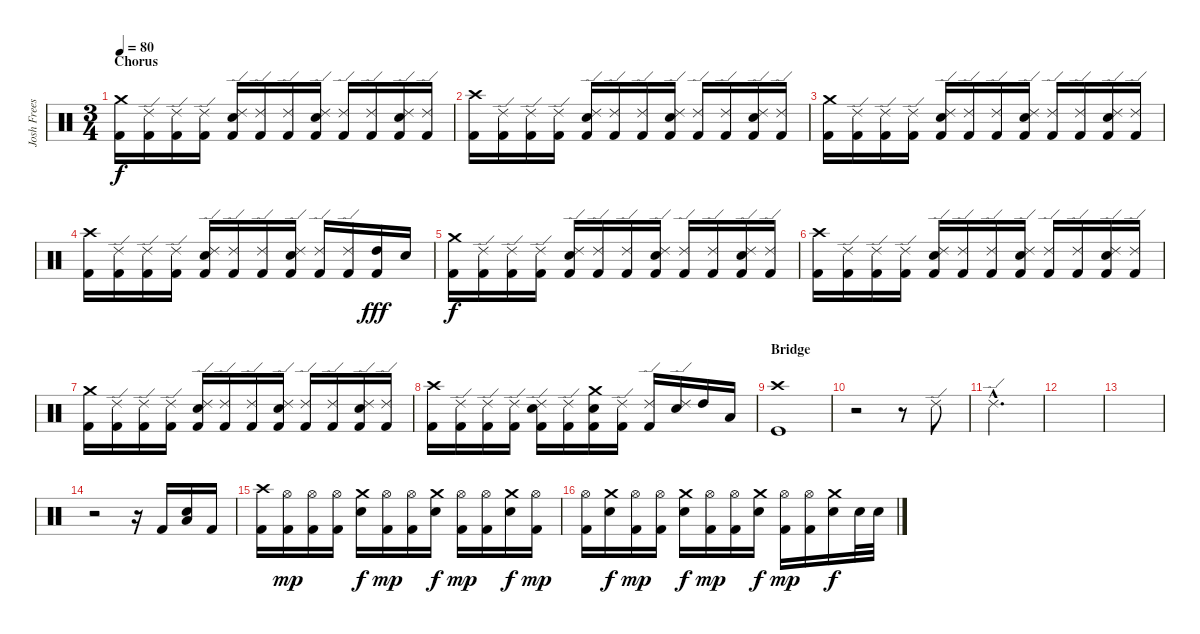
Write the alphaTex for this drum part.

\track ("Josh Freese" "Josh Frees") {instrument percussion}
\staff {score}
\articulation defaults
\ts (3 4)
\section ("" "Chorus")
\tempo 80
\clef neutral
\ks c
("Crash medium (hit)" "Kick (hit) 2").16{dy f} ("Ride (edge) 2" "Kick (hit) 2").16 ("Ride (edge) 2" "Kick (hit) 2").16 ("Ride (edge) 2" "Kick (hit) 2").16 ("Ride (edge) 2" "Electric Snare (hit)" "Kick (hit) 2").16 ("Ride (edge) 2" "Kick (hit) 2").16 ("Ride (edge) 2" "Kick (hit) 2").16 ("Ride (edge) 2" "Electric Snare (hit)" "Kick (hit) 2").16 ("Ride (edge) 2" "Kick (hit) 2").16 ("Ride (edge) 2" "Kick (hit) 2").16 ("Ride (edge) 2" "Electric Snare (hit)" "Kick (hit) 2").16 ("Ride (edge) 2" "Kick (hit) 2").16 |
("Crash high (hit)" "Kick (hit) 2").16 ("Ride (edge) 2" "Kick (hit) 2").16 ("Ride (edge) 2" "Kick (hit) 2").16 ("Ride (edge) 2" "Kick (hit) 2").16 ("Ride (edge) 2" "Electric Snare (hit)" "Kick (hit) 2").16 ("Ride (edge) 2" "Kick (hit) 2").16 ("Ride (edge) 2" "Kick (hit) 2").16 ("Ride (edge) 2" "Electric Snare (hit)" "Kick (hit) 2").16 ("Ride (edge) 2" "Kick (hit) 2").16 ("Ride (edge) 2" "Kick (hit) 2").16 ("Ride (edge) 2" "Electric Snare (hit)" "Kick (hit) 2").16 ("Ride (edge) 2" "Kick (hit) 2").16 |
("Crash medium (hit)" "Kick (hit) 2").16 ("Ride (edge) 2" "Kick (hit) 2").16 ("Ride (edge) 2" "Kick (hit) 2").16 ("Ride (edge) 2" "Kick (hit) 2").16 ("Ride (edge) 2" "Electric Snare (hit)" "Kick (hit) 2").16 ("Ride (edge) 2" "Kick (hit) 2").16 ("Ride (edge) 2" "Kick (hit) 2").16 ("Ride (edge) 2" "Electric Snare (hit)" "Kick (hit) 2").16 ("Ride (edge) 2" "Kick (hit) 2").16 ("Ride (edge) 2" "Kick (hit) 2").16 ("Ride (edge) 2" "Electric Snare (hit)" "Kick (hit) 2").16 ("Ride (edge) 2" "Kick (hit) 2").16 |
("Crash high (hit)" "Kick (hit) 2").16 ("Ride (edge) 2" "Kick (hit) 2").16 ("Ride (edge) 2" "Kick (hit) 2").16 ("Ride (edge) 2" "Kick (hit) 2").16 ("Ride (edge) 2" "Electric Snare (hit)" "Kick (hit) 2").16 ("Ride (edge) 2" "Kick (hit) 2").16 ("Ride (edge) 2" "Kick (hit) 2").16 ("Ride (edge) 2" "Electric Snare (hit)" "Kick (hit) 2").16 ("Ride (edge) 2" "Kick (hit) 2").16 ("Ride (edge) 2" "Kick (hit) 2").16 ("High Tom (hit)" "Kick (hit) 2").16{dy fff} "Electric Snare (hit)".16 |
("Crash medium (hit)" "Kick (hit) 2").16{dy f} ("Ride (edge) 2" "Kick (hit) 2").16 ("Ride (edge) 2" "Kick (hit) 2").16 ("Ride (edge) 2" "Kick (hit) 2").16 ("Ride (edge) 2" "Electric Snare (hit)" "Kick (hit) 2").16 ("Ride (edge) 2" "Kick (hit) 2").16 ("Ride (edge) 2" "Kick (hit) 2").16 ("Ride (edge) 2" "Electric Snare (hit)" "Kick (hit) 2").16 ("Ride (edge) 2" "Kick (hit) 2").16 ("Ride (edge) 2" "Kick (hit) 2").16 ("Ride (edge) 2" "Electric Snare (hit)" "Kick (hit) 2").16 ("Ride (edge) 2" "Kick (hit) 2").16 |
("Crash high (hit)" "Kick (hit) 2").16 ("Ride (edge) 2" "Kick (hit) 2").16 ("Ride (edge) 2" "Kick (hit) 2").16 ("Ride (edge) 2" "Kick (hit) 2").16 ("Ride (edge) 2" "Electric Snare (hit)" "Kick (hit) 2").16 ("Ride (edge) 2" "Kick (hit) 2").16 ("Ride (edge) 2" "Kick (hit) 2").16 ("Ride (edge) 2" "Electric Snare (hit)" "Kick (hit) 2").16 ("Ride (edge) 2" "Kick (hit) 2").16 ("Ride (edge) 2" "Kick (hit) 2").16 ("Ride (edge) 2" "Electric Snare (hit)" "Kick (hit) 2").16 ("Ride (edge) 2" "Kick (hit) 2").16 |
("Crash medium (hit)" "Kick (hit) 2").16 ("Ride (edge) 2" "Kick (hit) 2").16 ("Ride (edge) 2" "Kick (hit) 2").16 ("Ride (edge) 2" "Kick (hit) 2").16 ("Ride (edge) 2" "Electric Snare (hit)" "Kick (hit) 2").16 ("Ride (edge) 2" "Kick (hit) 2").16 ("Ride (edge) 2" "Kick (hit) 2").16 ("Ride (edge) 2" "Electric Snare (hit)" "Kick (hit) 2").16 ("Ride (edge) 2" "Kick (hit) 2").16 ("Ride (edge) 2" "Kick (hit) 2").16 ("Ride (edge) 2" "Electric Snare (hit)" "Kick (hit) 2").16 ("Ride (edge) 2" "Kick (hit) 2").16 |
("Crash high (hit)" "Kick (hit) 2").16 ("Ride (edge) 2" "Kick (hit) 2").16 ("Ride (edge) 2" "Kick (hit) 2").16 ("Ride (edge) 2" "Kick (hit) 2").16 ("Ride (edge) 2" "Electric Snare (hit)" "Kick (hit) 2").16 ("Ride (edge) 2" "Kick (hit) 2").16 ("Crash medium (hit)" "Electric Snare (hit)" "Kick (hit) 2").16 ("Ride (edge) 2" "Kick (hit) 2").16 ("Ride (edge) 2" "Kick (hit) 2").16 ("Ride (edge) 2" "Electric Snare (hit)").16 "High Tom (hit)".16 "Low Tom (hit)".16 |
\section ("" "Bridge")
("Crash high (hit)" "Kick (hit)").1 |
r.2 r.8 "Ride (edge) 2".8 |
"Ride (edge) 2"{hac}.2{d} |
|
|
r.2 r.16 "Kick (hit) 2".16 ("Electric Snare (hit)" "Low Floor Tom (hit)").16 "Kick (hit) 2".16 |
("Crash high (hit)" "Kick (hit) 2").16 ("Hi-Hat (open)" "Kick (hit) 2").16{dy mp} ("Hi-Hat (open)" "Kick (hit) 2").16 ("Hi-Hat (open)" "Kick (hit) 2").16 ("Crash medium (hit)" "Electric Snare (hit)").16{dy f} ("Hi-Hat (open)" "Kick (hit) 2").16{dy mp} ("Hi-Hat (open)" "Kick (hit) 2").16 ("Crash medium (hit)" "Electric Snare (hit)").16{dy f} ("Hi-Hat (open)" "Kick (hit) 2").16{dy mp} ("Hi-Hat (open)" "Kick (hit) 2").16 ("Crash medium (hit)" "Electric Snare (hit)").16{dy f} ("Hi-Hat (open)" "Kick (hit) 2").16{dy mp} |
("Hi-Hat (open)" "Kick (hit) 2").16 ("Crash medium (hit)" "Electric Snare (hit)").16{dy f} ("Hi-Hat (open)" "Kick (hit) 2").16{dy mp} ("Hi-Hat (open)" "Kick (hit) 2").16 ("Crash medium (hit)" "Electric Snare (hit)").16{dy f} ("Hi-Hat (open)" "Kick (hit) 2").16{dy mp} ("Hi-Hat (open)" "Kick (hit) 2").16 ("Crash medium (hit)" "Electric Snare (hit)").16{dy f} ("Hi-Hat (open)" "Kick (hit) 2").16{dy mp} ("Hi-Hat (open)" "Kick (hit) 2").16 ("Crash medium (hit)" "Electric Snare (hit)").16{dy f} "Electric Snare (hit)".32 "Electric Snare (hit)".32
